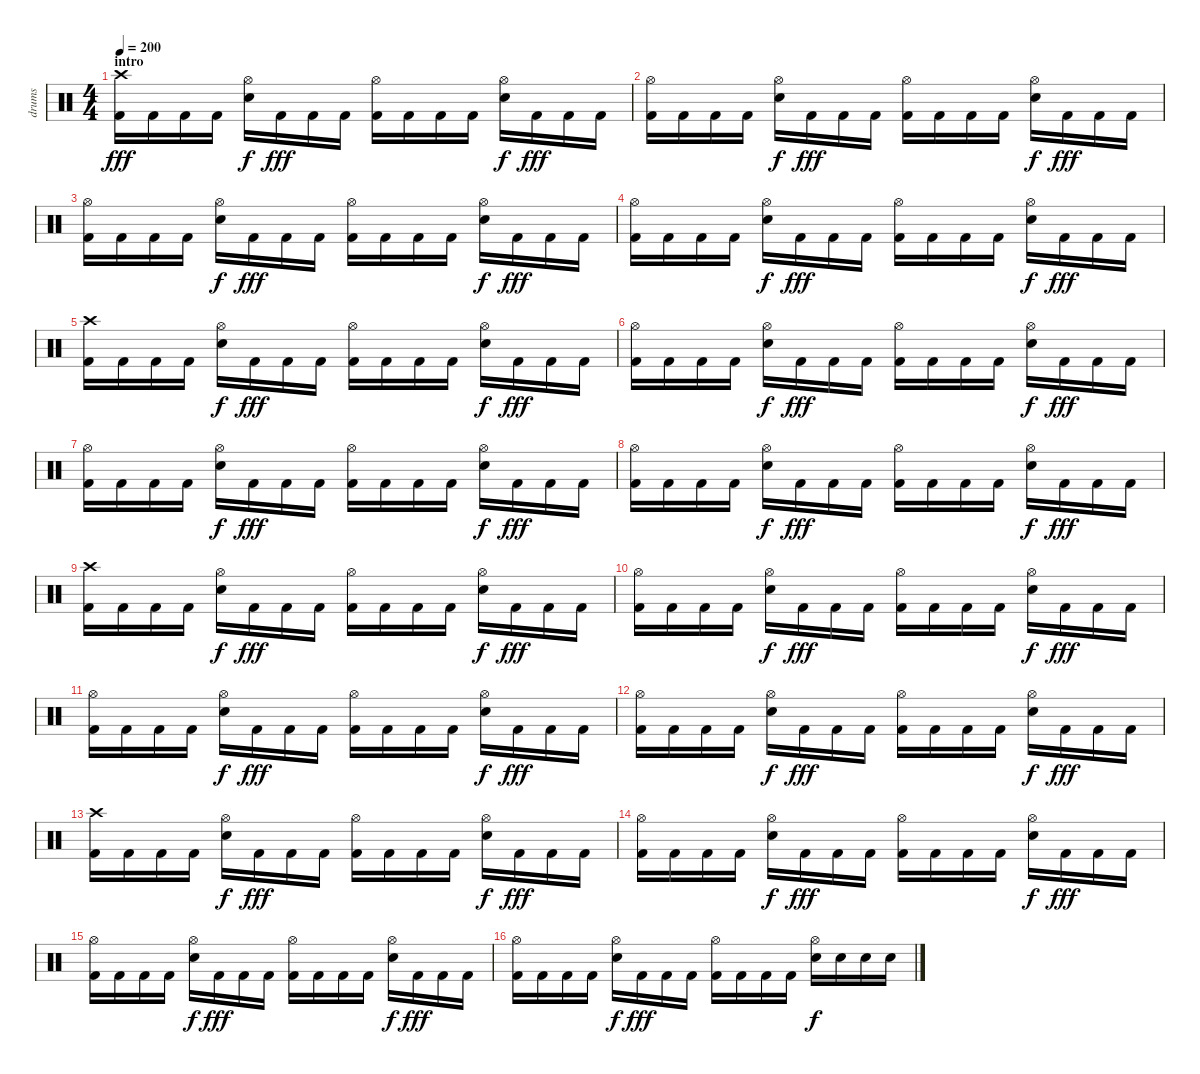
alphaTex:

\track ("drums" "drums") {instrument percussion}
\staff {score}
\articulation defaults
\ts (4 4)
\section ("" "intro")
\tempo 200
\clef neutral
\ks c
("Crash high (hit)" "Kick (hit) 2").16{dy fff} "Kick (hit) 2".16 "Kick (hit) 2".16 "Kick (hit) 2".16 ("Hi-Hat (open)" "Snare (hit) 2").16{dy f} "Kick (hit) 2".16{dy fff} "Kick (hit) 2".16 "Kick (hit) 2".16 ("Hi-Hat (open)" "Kick (hit) 2").16 "Kick (hit) 2".16 "Kick (hit) 2".16 "Kick (hit) 2".16 ("Hi-Hat (open)" "Snare (hit) 2").16{dy f} "Kick (hit) 2".16{dy fff} "Kick (hit) 2".16 "Kick (hit) 2".16 |
("Hi-Hat (open)" "Kick (hit) 2").16 "Kick (hit) 2".16 "Kick (hit) 2".16 "Kick (hit) 2".16 ("Hi-Hat (open)" "Snare (hit) 2").16{dy f} "Kick (hit) 2".16{dy fff} "Kick (hit) 2".16 "Kick (hit) 2".16 ("Hi-Hat (open)" "Kick (hit) 2").16 "Kick (hit) 2".16 "Kick (hit) 2".16 "Kick (hit) 2".16 ("Hi-Hat (open)" "Snare (hit) 2").16{dy f} "Kick (hit) 2".16{dy fff} "Kick (hit) 2".16 "Kick (hit) 2".16 |
("Hi-Hat (open)" "Kick (hit) 2").16 "Kick (hit) 2".16 "Kick (hit) 2".16 "Kick (hit) 2".16 ("Hi-Hat (open)" "Snare (hit) 2").16{dy f} "Kick (hit) 2".16{dy fff} "Kick (hit) 2".16 "Kick (hit) 2".16 ("Hi-Hat (open)" "Kick (hit) 2").16 "Kick (hit) 2".16 "Kick (hit) 2".16 "Kick (hit) 2".16 ("Hi-Hat (open)" "Snare (hit) 2").16{dy f} "Kick (hit) 2".16{dy fff} "Kick (hit) 2".16 "Kick (hit) 2".16 |
("Hi-Hat (open)" "Kick (hit) 2").16 "Kick (hit) 2".16 "Kick (hit) 2".16 "Kick (hit) 2".16 ("Hi-Hat (open)" "Snare (hit) 2").16{dy f} "Kick (hit) 2".16{dy fff} "Kick (hit) 2".16 "Kick (hit) 2".16 ("Hi-Hat (open)" "Kick (hit) 2").16 "Kick (hit) 2".16 "Kick (hit) 2".16 "Kick (hit) 2".16 ("Hi-Hat (open)" "Snare (hit) 2").16{dy f} "Kick (hit) 2".16{dy fff} "Kick (hit) 2".16 "Kick (hit) 2".16 |
("Crash high (hit)" "Kick (hit) 2").16 "Kick (hit) 2".16 "Kick (hit) 2".16 "Kick (hit) 2".16 ("Hi-Hat (open)" "Snare (hit) 2").16{dy f} "Kick (hit) 2".16{dy fff} "Kick (hit) 2".16 "Kick (hit) 2".16 ("Hi-Hat (open)" "Kick (hit) 2").16 "Kick (hit) 2".16 "Kick (hit) 2".16 "Kick (hit) 2".16 ("Hi-Hat (open)" "Snare (hit) 2").16{dy f} "Kick (hit) 2".16{dy fff} "Kick (hit) 2".16 "Kick (hit) 2".16 |
("Hi-Hat (open)" "Kick (hit) 2").16 "Kick (hit) 2".16 "Kick (hit) 2".16 "Kick (hit) 2".16 ("Hi-Hat (open)" "Snare (hit) 2").16{dy f} "Kick (hit) 2".16{dy fff} "Kick (hit) 2".16 "Kick (hit) 2".16 ("Hi-Hat (open)" "Kick (hit) 2").16 "Kick (hit) 2".16 "Kick (hit) 2".16 "Kick (hit) 2".16 ("Hi-Hat (open)" "Snare (hit) 2").16{dy f} "Kick (hit) 2".16{dy fff} "Kick (hit) 2".16 "Kick (hit) 2".16 |
("Hi-Hat (open)" "Kick (hit) 2").16 "Kick (hit) 2".16 "Kick (hit) 2".16 "Kick (hit) 2".16 ("Hi-Hat (open)" "Snare (hit) 2").16{dy f} "Kick (hit) 2".16{dy fff} "Kick (hit) 2".16 "Kick (hit) 2".16 ("Hi-Hat (open)" "Kick (hit) 2").16 "Kick (hit) 2".16 "Kick (hit) 2".16 "Kick (hit) 2".16 ("Hi-Hat (open)" "Snare (hit) 2").16{dy f} "Kick (hit) 2".16{dy fff} "Kick (hit) 2".16 "Kick (hit) 2".16 |
("Hi-Hat (open)" "Kick (hit) 2").16 "Kick (hit) 2".16 "Kick (hit) 2".16 "Kick (hit) 2".16 ("Hi-Hat (open)" "Snare (hit) 2").16{dy f} "Kick (hit) 2".16{dy fff} "Kick (hit) 2".16 "Kick (hit) 2".16 ("Hi-Hat (open)" "Kick (hit) 2").16 "Kick (hit) 2".16 "Kick (hit) 2".16 "Kick (hit) 2".16 ("Hi-Hat (open)" "Snare (hit) 2").16{dy f} "Kick (hit) 2".16{dy fff} "Kick (hit) 2".16 "Kick (hit) 2".16 |
("Crash high (hit)" "Kick (hit) 2").16 "Kick (hit) 2".16 "Kick (hit) 2".16 "Kick (hit) 2".16 ("Hi-Hat (open)" "Snare (hit) 2").16{dy f} "Kick (hit) 2".16{dy fff} "Kick (hit) 2".16 "Kick (hit) 2".16 ("Hi-Hat (open)" "Kick (hit) 2").16 "Kick (hit) 2".16 "Kick (hit) 2".16 "Kick (hit) 2".16 ("Hi-Hat (open)" "Snare (hit) 2").16{dy f} "Kick (hit) 2".16{dy fff} "Kick (hit) 2".16 "Kick (hit) 2".16 |
("Hi-Hat (open)" "Kick (hit) 2").16 "Kick (hit) 2".16 "Kick (hit) 2".16 "Kick (hit) 2".16 ("Hi-Hat (open)" "Snare (hit) 2").16{dy f} "Kick (hit) 2".16{dy fff} "Kick (hit) 2".16 "Kick (hit) 2".16 ("Hi-Hat (open)" "Kick (hit) 2").16 "Kick (hit) 2".16 "Kick (hit) 2".16 "Kick (hit) 2".16 ("Hi-Hat (open)" "Snare (hit) 2").16{dy f} "Kick (hit) 2".16{dy fff} "Kick (hit) 2".16 "Kick (hit) 2".16 |
("Hi-Hat (open)" "Kick (hit) 2").16 "Kick (hit) 2".16 "Kick (hit) 2".16 "Kick (hit) 2".16 ("Hi-Hat (open)" "Snare (hit) 2").16{dy f} "Kick (hit) 2".16{dy fff} "Kick (hit) 2".16 "Kick (hit) 2".16 ("Hi-Hat (open)" "Kick (hit) 2").16 "Kick (hit) 2".16 "Kick (hit) 2".16 "Kick (hit) 2".16 ("Hi-Hat (open)" "Snare (hit) 2").16{dy f} "Kick (hit) 2".16{dy fff} "Kick (hit) 2".16 "Kick (hit) 2".16 |
("Hi-Hat (open)" "Kick (hit) 2").16 "Kick (hit) 2".16 "Kick (hit) 2".16 "Kick (hit) 2".16 ("Hi-Hat (open)" "Snare (hit) 2").16{dy f} "Kick (hit) 2".16{dy fff} "Kick (hit) 2".16 "Kick (hit) 2".16 ("Hi-Hat (open)" "Kick (hit) 2").16 "Kick (hit) 2".16 "Kick (hit) 2".16 "Kick (hit) 2".16 ("Hi-Hat (open)" "Snare (hit) 2").16{dy f} "Kick (hit) 2".16{dy fff} "Kick (hit) 2".16 "Kick (hit) 2".16 |
("Crash high (hit)" "Kick (hit) 2").16 "Kick (hit) 2".16 "Kick (hit) 2".16 "Kick (hit) 2".16 ("Hi-Hat (open)" "Snare (hit) 2").16{dy f} "Kick (hit) 2".16{dy fff} "Kick (hit) 2".16 "Kick (hit) 2".16 ("Hi-Hat (open)" "Kick (hit) 2").16 "Kick (hit) 2".16 "Kick (hit) 2".16 "Kick (hit) 2".16 ("Hi-Hat (open)" "Snare (hit) 2").16{dy f} "Kick (hit) 2".16{dy fff} "Kick (hit) 2".16 "Kick (hit) 2".16 |
("Hi-Hat (open)" "Kick (hit) 2").16 "Kick (hit) 2".16 "Kick (hit) 2".16 "Kick (hit) 2".16 ("Hi-Hat (open)" "Snare (hit) 2").16{dy f} "Kick (hit) 2".16{dy fff} "Kick (hit) 2".16 "Kick (hit) 2".16 ("Hi-Hat (open)" "Kick (hit) 2").16 "Kick (hit) 2".16 "Kick (hit) 2".16 "Kick (hit) 2".16 ("Hi-Hat (open)" "Snare (hit) 2").16{dy f} "Kick (hit) 2".16{dy fff} "Kick (hit) 2".16 "Kick (hit) 2".16 |
("Hi-Hat (open)" "Kick (hit) 2").16 "Kick (hit) 2".16 "Kick (hit) 2".16 "Kick (hit) 2".16 ("Hi-Hat (open)" "Snare (hit) 2").16{dy f} "Kick (hit) 2".16{dy fff} "Kick (hit) 2".16 "Kick (hit) 2".16 ("Hi-Hat (open)" "Kick (hit) 2").16 "Kick (hit) 2".16 "Kick (hit) 2".16 "Kick (hit) 2".16 ("Hi-Hat (open)" "Snare (hit) 2").16{dy f} "Kick (hit) 2".16{dy fff} "Kick (hit) 2".16 "Kick (hit) 2".16 |
("Hi-Hat (open)" "Kick (hit) 2").16 "Kick (hit) 2".16 "Kick (hit) 2".16 "Kick (hit) 2".16 ("Hi-Hat (open)" "Snare (hit) 2").16{dy f} "Kick (hit) 2".16{dy fff} "Kick (hit) 2".16 "Kick (hit) 2".16 ("Hi-Hat (open)" "Kick (hit) 2").16 "Kick (hit) 2".16 "Kick (hit) 2".16 "Kick (hit) 2".16 ("Hi-Hat (open)" "Snare (hit) 2").16{dy f} "Snare (hit) 2".16 "Snare (hit) 2".16 "Snare (hit) 2".16
